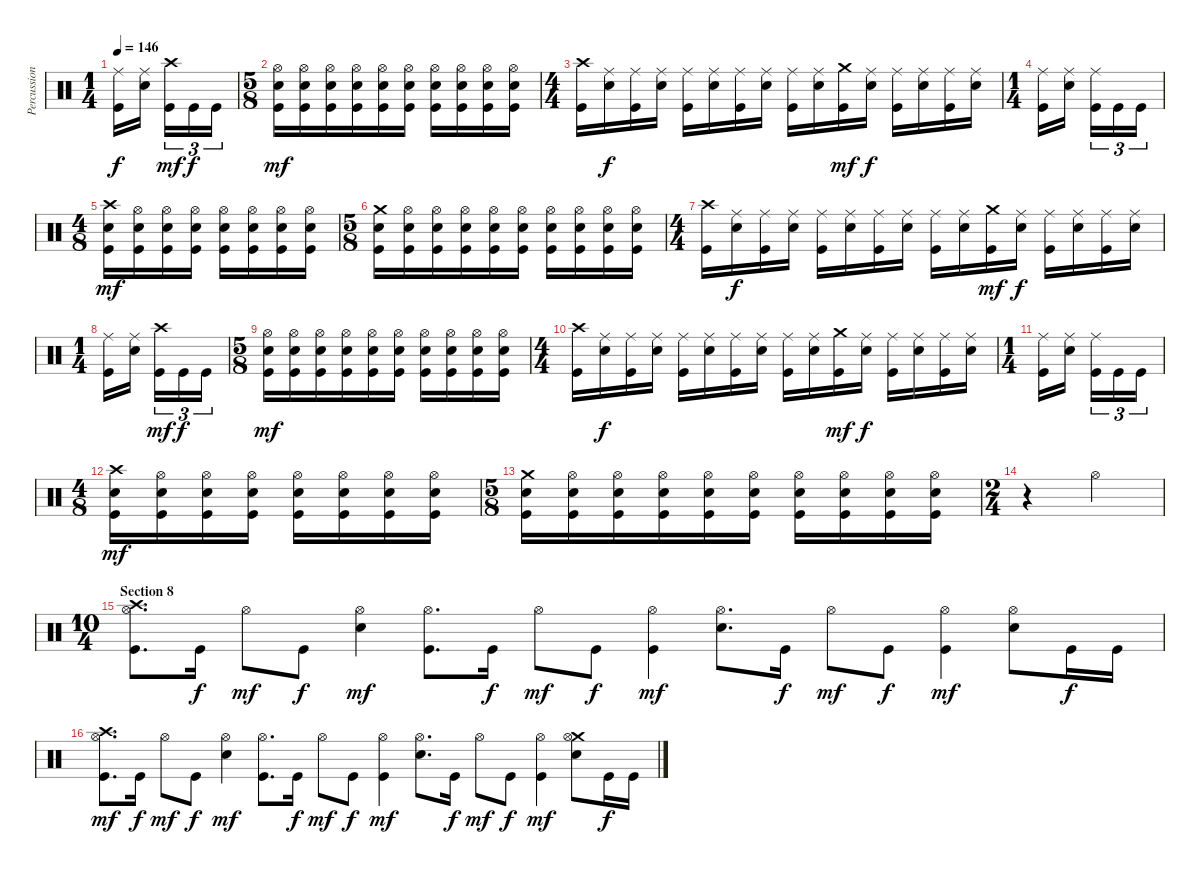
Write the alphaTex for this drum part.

\track ("Percussion" "Percussion") {instrument percussion}
\staff {score}
\articulation defaults
\ts (1 4)
\tempo 146
\clef neutral
\ks c
("Ride (middle)" "Kick (hit)").16{dy f} ("Ride (middle)" "Electric Snare (hit)").16{beam splitsecondary} ("Crash high (hit)" "Kick (hit)").16{tu (3 2) dy mf} "Kick (hit)".16{tu (3 2) dy f} "Kick (hit)".16{tu (3 2)} |
\ts (5 8)
("Hi-Hat (open)" "Electric Snare (hit)" "Kick (hit)").16{dy mf} ("Hi-Hat (open)" "Electric Snare (hit)" "Kick (hit)").16 ("Hi-Hat (open)" "Electric Snare (hit)" "Kick (hit)").16 ("Hi-Hat (open)" "Electric Snare (hit)" "Kick (hit)").16 ("Hi-Hat (open)" "Electric Snare (hit)" "Kick (hit)").16 ("Hi-Hat (open)" "Electric Snare (hit)" "Kick (hit)").16 ("Hi-Hat (open)" "Electric Snare (hit)" "Kick (hit)").16 ("Hi-Hat (open)" "Electric Snare (hit)" "Kick (hit)").16 ("Hi-Hat (open)" "Electric Snare (hit)" "Kick (hit)").16 ("Hi-Hat (open)" "Electric Snare (hit)" "Kick (hit)").16 |
\ts (4 4)
("Crash high (hit)" "Kick (hit)").16 ("Ride (middle)" "Electric Snare (hit)").16{dy f} ("Ride (middle)" "Kick (hit)").16 ("Ride (middle)" "Electric Snare (hit)").16 ("Ride (middle)" "Kick (hit)").16 ("Ride (middle)" "Electric Snare (hit)").16 ("Ride (middle)" "Kick (hit)").16 ("Ride (middle)" "Electric Snare (hit)").16 ("Ride (middle)" "Kick (hit)").16 ("Ride (middle)" "Electric Snare (hit)").16 ("Crash medium (hit)" "Kick (hit)").16{dy mf} ("Ride (middle)" "Electric Snare (hit)").16{dy f} ("Ride (middle)" "Kick (hit)").16 ("Ride (middle)" "Electric Snare (hit)").16 ("Ride (middle)" "Kick (hit)").16 ("Ride (middle)" "Electric Snare (hit)").16 |
\ts (1 4)
("Ride (middle)" "Kick (hit)").16 ("Ride (middle)" "Electric Snare (hit)").16{beam splitsecondary} ("Ride (middle)" "Kick (hit)").16{tu (3 2)} "Kick (hit)".16{tu (3 2)} "Kick (hit)".16{tu (3 2)} |
\ts (4 8)
("Crash high (hit)" "Electric Snare (hit)" "Kick (hit)").16{dy mf} ("Hi-Hat (open)" "Electric Snare (hit)" "Kick (hit)").16 ("Hi-Hat (open)" "Electric Snare (hit)" "Kick (hit)").16 ("Hi-Hat (open)" "Electric Snare (hit)" "Kick (hit)").16 ("Hi-Hat (open)" "Electric Snare (hit)" "Kick (hit)").16 ("Hi-Hat (open)" "Electric Snare (hit)" "Kick (hit)").16 ("Hi-Hat (open)" "Electric Snare (hit)" "Kick (hit)").16 ("Hi-Hat (open)" "Electric Snare (hit)" "Kick (hit)").16 |
\ts (5 8)
("Crash medium (hit)" "Electric Snare (hit)" "Kick (hit)").16 ("Hi-Hat (open)" "Electric Snare (hit)" "Kick (hit)").16 ("Hi-Hat (open)" "Electric Snare (hit)" "Kick (hit)").16 ("Hi-Hat (open)" "Electric Snare (hit)" "Kick (hit)").16 ("Hi-Hat (open)" "Electric Snare (hit)" "Kick (hit)").16 ("Hi-Hat (open)" "Electric Snare (hit)" "Kick (hit)").16 ("Hi-Hat (open)" "Electric Snare (hit)" "Kick (hit)").16 ("Hi-Hat (open)" "Electric Snare (hit)" "Kick (hit)").16 ("Hi-Hat (open)" "Electric Snare (hit)" "Kick (hit)").16 ("Hi-Hat (open)" "Electric Snare (hit)" "Kick (hit)").16 |
\ts (4 4)
("Crash high (hit)" "Kick (hit)").16 ("Ride (middle)" "Electric Snare (hit)").16{dy f} ("Ride (middle)" "Kick (hit)").16 ("Ride (middle)" "Electric Snare (hit)").16 ("Ride (middle)" "Kick (hit)").16 ("Ride (middle)" "Electric Snare (hit)").16 ("Ride (middle)" "Kick (hit)").16 ("Ride (middle)" "Electric Snare (hit)").16 ("Ride (middle)" "Kick (hit)").16 ("Ride (middle)" "Electric Snare (hit)").16 ("Crash medium (hit)" "Kick (hit)").16{dy mf} ("Ride (middle)" "Electric Snare (hit)").16{dy f} ("Ride (middle)" "Kick (hit)").16 ("Ride (middle)" "Electric Snare (hit)").16 ("Ride (middle)" "Kick (hit)").16 ("Ride (middle)" "Electric Snare (hit)").16 |
\ts (1 4)
("Ride (middle)" "Kick (hit)").16 ("Ride (middle)" "Electric Snare (hit)").16{beam splitsecondary} ("Crash high (hit)" "Kick (hit)").16{tu (3 2) dy mf} "Kick (hit)".16{tu (3 2) dy f} "Kick (hit)".16{tu (3 2)} |
\ts (5 8)
("Hi-Hat (open)" "Electric Snare (hit)" "Kick (hit)").16{dy mf} ("Hi-Hat (open)" "Electric Snare (hit)" "Kick (hit)").16 ("Hi-Hat (open)" "Electric Snare (hit)" "Kick (hit)").16 ("Hi-Hat (open)" "Electric Snare (hit)" "Kick (hit)").16 ("Hi-Hat (open)" "Electric Snare (hit)" "Kick (hit)").16 ("Hi-Hat (open)" "Electric Snare (hit)" "Kick (hit)").16 ("Hi-Hat (open)" "Electric Snare (hit)" "Kick (hit)").16 ("Hi-Hat (open)" "Electric Snare (hit)" "Kick (hit)").16 ("Hi-Hat (open)" "Electric Snare (hit)" "Kick (hit)").16 ("Hi-Hat (open)" "Electric Snare (hit)" "Kick (hit)").16 |
\ts (4 4)
("Crash high (hit)" "Kick (hit)").16 ("Ride (middle)" "Electric Snare (hit)").16{dy f} ("Ride (middle)" "Kick (hit)").16 ("Ride (middle)" "Electric Snare (hit)").16 ("Ride (middle)" "Kick (hit)").16 ("Ride (middle)" "Electric Snare (hit)").16 ("Ride (middle)" "Kick (hit)").16 ("Ride (middle)" "Electric Snare (hit)").16 ("Ride (middle)" "Kick (hit)").16 ("Ride (middle)" "Electric Snare (hit)").16 ("Crash medium (hit)" "Kick (hit)").16{dy mf} ("Ride (middle)" "Electric Snare (hit)").16{dy f} ("Ride (middle)" "Kick (hit)").16 ("Ride (middle)" "Electric Snare (hit)").16 ("Ride (middle)" "Kick (hit)").16 ("Ride (middle)" "Electric Snare (hit)").16 |
\ts (1 4)
("Ride (middle)" "Kick (hit)").16 ("Ride (middle)" "Electric Snare (hit)").16{beam splitsecondary} ("Ride (middle)" "Kick (hit)").16{tu (3 2)} "Kick (hit)".16{tu (3 2)} "Kick (hit)".16{tu (3 2)} |
\ts (4 8)
("Crash high (hit)" "Electric Snare (hit)" "Kick (hit)").16{dy mf} ("Hi-Hat (open)" "Electric Snare (hit)" "Kick (hit)").16 ("Hi-Hat (open)" "Electric Snare (hit)" "Kick (hit)").16 ("Hi-Hat (open)" "Electric Snare (hit)" "Kick (hit)").16 ("Hi-Hat (open)" "Electric Snare (hit)" "Kick (hit)").16 ("Hi-Hat (open)" "Electric Snare (hit)" "Kick (hit)").16 ("Hi-Hat (open)" "Electric Snare (hit)" "Kick (hit)").16 ("Hi-Hat (open)" "Electric Snare (hit)" "Kick (hit)").16 |
\ts (5 8)
("Crash medium (hit)" "Electric Snare (hit)" "Kick (hit)").16 ("Hi-Hat (open)" "Electric Snare (hit)" "Kick (hit)").16 ("Hi-Hat (open)" "Electric Snare (hit)" "Kick (hit)").16 ("Hi-Hat (open)" "Electric Snare (hit)" "Kick (hit)").16 ("Hi-Hat (open)" "Electric Snare (hit)" "Kick (hit)").16 ("Hi-Hat (open)" "Electric Snare (hit)" "Kick (hit)").16 ("Hi-Hat (open)" "Electric Snare (hit)" "Kick (hit)").16 ("Hi-Hat (open)" "Electric Snare (hit)" "Kick (hit)").16 ("Hi-Hat (open)" "Electric Snare (hit)" "Kick (hit)").16 ("Hi-Hat (open)" "Electric Snare (hit)" "Kick (hit)").16 |
\ts (2 4)
r.4 "Hi-Hat (open)".4 |
\ts (10 4)
\section ("" "Section 8")
("Crash high (hit)" "Hi-Hat (open)" "Kick (hit)").8{d} "Kick (hit)".16{dy f} "Hi-Hat (open)".8{dy mf} "Kick (hit)".8{dy f} ("Hi-Hat (open)" "Electric Snare (hit)").4{dy mf} ("Hi-Hat (open)" "Kick (hit)").8{d} "Kick (hit)".16{dy f} "Hi-Hat (open)".8{dy mf} "Kick (hit)".8{dy f} ("Hi-Hat (open)" "Kick (hit)").4{dy mf} ("Hi-Hat (open)" "Electric Snare (hit)").8{d} "Kick (hit)".16{dy f} "Hi-Hat (open)".8{dy mf} "Kick (hit)".8{dy f} ("Hi-Hat (open)" "Kick (hit)").4{dy mf} ("Hi-Hat (open)" "Electric Snare (hit)").8 "Kick (hit)".16{dy f} "Kick (hit)".16 |
("Crash high (hit)" "Hi-Hat (open)" "Kick (hit)").8{d dy mf} "Kick (hit)".16{dy f} "Hi-Hat (open)".8{dy mf} "Kick (hit)".8{dy f} ("Hi-Hat (open)" "Electric Snare (hit)").4{dy mf} ("Hi-Hat (open)" "Kick (hit)").8{d} "Kick (hit)".16{dy f} "Hi-Hat (open)".8{dy mf} "Kick (hit)".8{dy f} ("Hi-Hat (open)" "Kick (hit)").4{dy mf} ("Hi-Hat (open)" "Electric Snare (hit)").8{d} "Kick (hit)".16{dy f} "Hi-Hat (open)".8{dy mf} "Kick (hit)".8{dy f} ("Hi-Hat (open)" "Kick (hit)").4{dy mf} ("Crash medium (hit)" "Hi-Hat (open)" "Electric Snare (hit)").8 "Kick (hit)".16{dy f} "Kick (hit)".16
